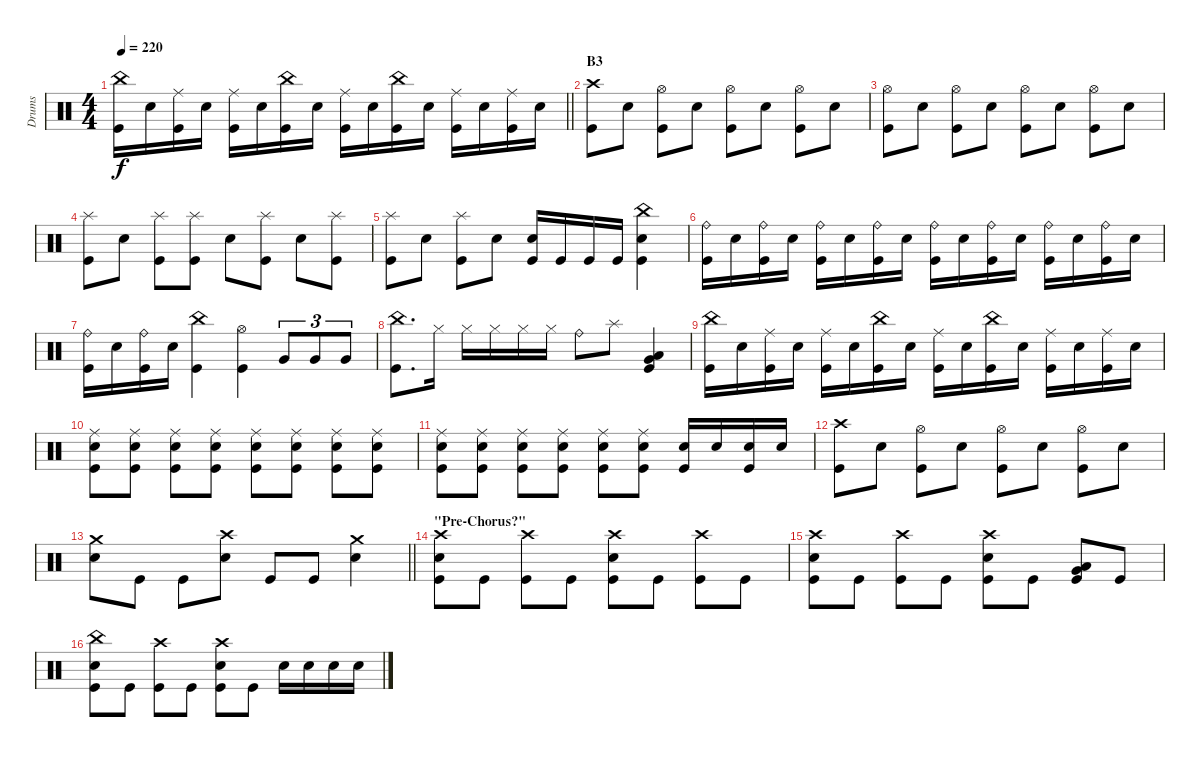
\track ("Drums" "Drums") {instrument percussion}
\staff {score}
\articulation defaults
\ts (4 4)
\tempo 220
\clef neutral
\barLineRight lightlight
\ks c
("China (hit)" "Kick (hit)").16{dy f} "Electric Snare (hit)".16 ("Ride (middle)" "Kick (hit)").16 "Electric Snare (hit)".16 ("Ride (middle)" "Kick (hit)").16 "Electric Snare (hit)".16 ("China (hit)" "Kick (hit)").16 "Electric Snare (hit)".16 ("Ride (middle)" "Kick (hit)").16 "Electric Snare (hit)".16 ("China (hit)" "Kick (hit)").16 "Electric Snare (hit)".16 ("Ride (middle)" "Kick (hit)").16 "Electric Snare (hit)".16 ("Ride (middle)" "Kick (hit)").16 "Electric Snare (hit)".16 |
\section ("" "B3")
("Crash high (hit)" "Kick (hit)").8 "Electric Snare (hit)".8 ("Hi-Hat (open)" "Kick (hit)").8 "Electric Snare (hit)".8 ("Hi-Hat (open)" "Kick (hit)").8 "Electric Snare (hit)".8 ("Hi-Hat (open)" "Kick (hit)").8 "Electric Snare (hit)".8 |
("Hi-Hat (open)" "Kick (hit)").8 "Electric Snare (hit)".8 ("Hi-Hat (open)" "Kick (hit)").8 "Electric Snare (hit)".8 ("Hi-Hat (open)" "Kick (hit)").8 "Electric Snare (hit)".8 ("Hi-Hat (open)" "Kick (hit)").8 "Electric Snare (hit)".8 |
("Splash (hit)" "Kick (hit)").8 "Electric Snare (hit)".8 ("Splash (hit)" "Kick (hit)").8 ("Splash (hit)" "Kick (hit)").8 "Electric Snare (hit)".8 ("Splash (hit)" "Kick (hit)").8 "Electric Snare (hit)".8 ("Splash (hit)" "Kick (hit)").8 |
("Splash (hit)" "Kick (hit)").8 "Electric Snare (hit)".8 ("Splash (hit)" "Kick (hit)").8 "Electric Snare (hit)".8 ("Electric Snare (hit)" "Kick (hit)").16 "Kick (hit)".16 "Kick (hit)".16 "Kick (hit)".16 ("China (hit)" "Electric Snare (hit)" "Kick (hit)").4 |
("Ride (bell)" "Kick (hit)").16 "Electric Snare (hit)".16 ("Ride (bell)" "Kick (hit)").16 "Electric Snare (hit)".16 ("Ride (bell)" "Kick (hit)").16 "Electric Snare (hit)".16 ("Ride (bell)" "Kick (hit)").16 "Electric Snare (hit)".16 ("Ride (bell)" "Kick (hit)").16 "Electric Snare (hit)".16 ("Ride (bell)" "Kick (hit)").16 "Electric Snare (hit)".16 ("Ride (bell)" "Kick (hit)").16 "Electric Snare (hit)".16 ("Ride (bell)" "Kick (hit)").16 "Electric Snare (hit)".16 |
("Ride (bell)" "Kick (hit)").16 "Electric Snare (hit)".16 ("Ride (bell)" "Kick (hit)").16 "Electric Snare (hit)".16 ("China (hit)" "Kick (hit)").4 ("Hi-Hat (open)" "Kick (hit)").4 "Very Low Tom (hit)".8{tu (3 2)} "Very Low Tom (hit)".8{tu (3 2)} "Very Low Tom (hit)".8{tu (3 2)} |
("China (hit)" "Kick (hit)").8{d} "Hi-Hat (closed)".16 "Hi-Hat (closed)".16 "Hi-Hat (closed)".16 "Hi-Hat (closed)".16 "Hi-Hat (closed)".16 "Ride (bell)".8 "Splash (hit)".8 ("Low Tom (hit)" "Very Low Tom (hit)" "Kick (hit)").4 |
("China (hit)" "Kick (hit)").16 "Electric Snare (hit)".16 ("Ride (middle)" "Kick (hit)").16 "Electric Snare (hit)".16 ("Ride (middle)" "Kick (hit)").16 "Electric Snare (hit)".16 ("China (hit)" "Kick (hit)").16 "Electric Snare (hit)".16 ("Ride (middle)" "Kick (hit)").16 "Electric Snare (hit)".16 ("China (hit)" "Kick (hit)").16 "Electric Snare (hit)".16 ("Ride (middle)" "Kick (hit)").16 "Electric Snare (hit)".16 ("Ride (middle)" "Kick (hit)").16 "Electric Snare (hit)".16 |
("Ride (middle)" "Electric Snare (hit)" "Kick (hit)").8 ("Ride (middle)" "Electric Snare (hit)" "Kick (hit)").8 ("Ride (middle)" "Electric Snare (hit)" "Kick (hit)").8 ("Ride (middle)" "Electric Snare (hit)" "Kick (hit)").8 ("Ride (middle)" "Electric Snare (hit)" "Kick (hit)").8 ("Ride (middle)" "Electric Snare (hit)" "Kick (hit)").8 ("Ride (middle)" "Electric Snare (hit)" "Kick (hit)").8 ("Ride (middle)" "Electric Snare (hit)" "Kick (hit)").8 |
("Ride (middle)" "Electric Snare (hit)" "Kick (hit)").8 ("Ride (middle)" "Electric Snare (hit)" "Kick (hit)").8 ("Ride (middle)" "Electric Snare (hit)" "Kick (hit)").8 ("Ride (middle)" "Electric Snare (hit)" "Kick (hit)").8 ("Ride (middle)" "Electric Snare (hit)" "Kick (hit)").8 ("Ride (middle)" "Electric Snare (hit)" "Kick (hit)").8 ("Electric Snare (hit)" "Kick (hit)").16 "Electric Snare (hit)".16 ("Electric Snare (hit)" "Kick (hit)").16 "Electric Snare (hit)".16 |
("Crash high (hit)" "Kick (hit)").8 "Electric Snare (hit)".8 ("Hi-Hat (open)" "Kick (hit)").8 "Electric Snare (hit)".8 ("Hi-Hat (open)" "Kick (hit)").8 "Electric Snare (hit)".8 ("Hi-Hat (open)" "Kick (hit)").8 "Electric Snare (hit)".8 |
\barLineRight lightlight
("Crash medium (hit)" "Electric Snare (hit)").8 "Kick (hit)".8 "Kick (hit)".8 ("Crash high (hit)" "Electric Snare (hit)").8 "Kick (hit)".8 "Kick (hit)".8 ("Crash medium (hit)" "Electric Snare (hit)").4 |
\section ("" "\"Pre-Chorus?\"")
("Crash high (hit)" "Electric Snare (hit)" "Kick (hit)").8 "Kick (hit)".8 ("Crash high (hit)" "Kick (hit)").8 "Kick (hit)".8 ("Crash high (hit)" "Electric Snare (hit)" "Kick (hit)").8 "Kick (hit)".8 ("Crash high (hit)" "Kick (hit)").8 "Kick (hit)".8 |
("Crash high (hit)" "Electric Snare (hit)" "Kick (hit)").8 "Kick (hit)".8 ("Crash high (hit)" "Kick (hit)").8 "Kick (hit)".8 ("Crash high (hit)" "Electric Snare (hit)" "Kick (hit)").8 "Kick (hit)".8 ("Low Tom (hit)" "Very Low Tom (hit)" "Kick (hit)").8 "Kick (hit)".8 |
("China (hit)" "Electric Snare (hit)" "Kick (hit)").8 "Kick (hit)".8 ("Crash high (hit)" "Kick (hit)").8 "Kick (hit)".8 ("Crash high (hit)" "Electric Snare (hit)" "Kick (hit)").8 "Kick (hit)".8 "Electric Snare (hit)".16 "Electric Snare (hit)".16 "Electric Snare (hit)".16 "Electric Snare (hit)".16
